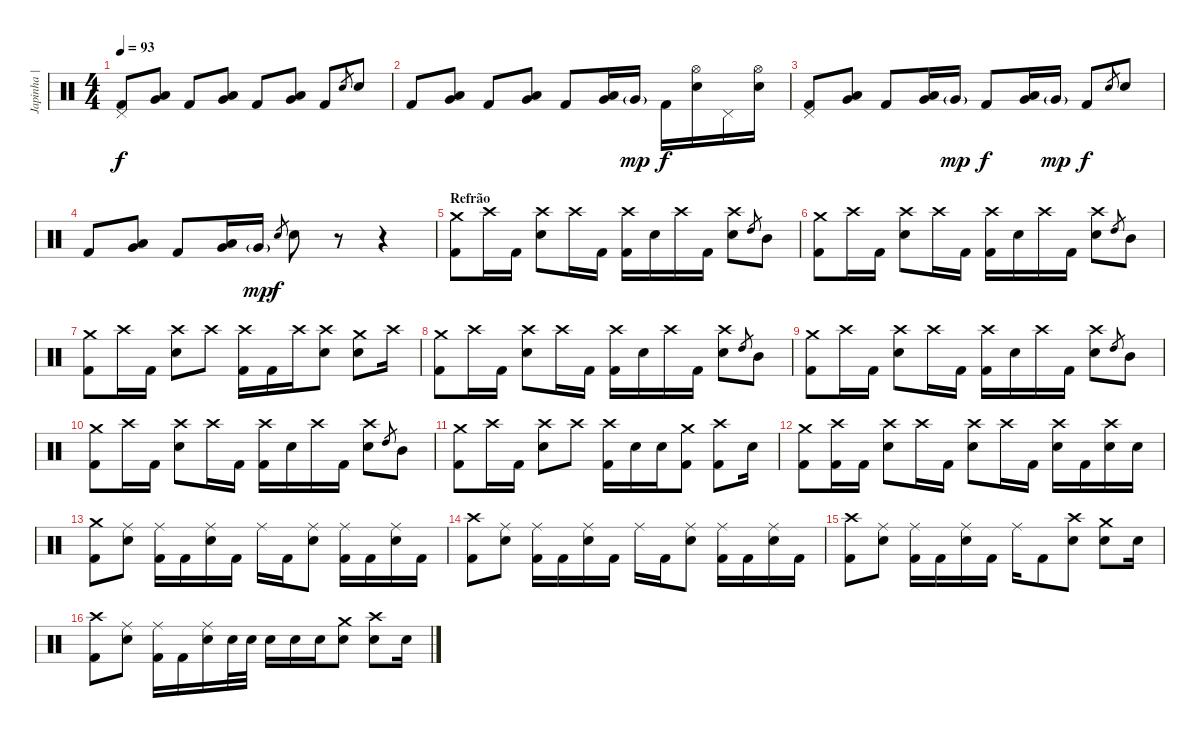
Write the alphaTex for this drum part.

\track ("Japinha | Bateria" "Japinha | ") {instrument percussion}
\staff {score}
\articulation defaults
\ts (4 4)
\tempo 93
\clef neutral
\ks c
("Pedal Hi-Hat (hit)" "Kick (hit) 2").8{dy f} ("Low Tom (hit)" "Very Low Tom (hit)").8 "Kick (hit) 2".8 ("Low Tom (hit)" "Very Low Tom (hit)").8 "Kick (hit) 2".8 ("Low Tom (hit)" "Very Low Tom (hit)").8 "Kick (hit) 2".8 "Electric Snare (hit)".8{gr} "Electric Snare (hit)".8 |
"Kick (hit) 2".8 ("Low Tom (hit)" "Very Low Tom (hit)").8 "Kick (hit) 2".8 ("Low Tom (hit)" "Very Low Tom (hit)").8 "Kick (hit) 2".8 ("Low Tom (hit)" "Very Low Tom (hit)").16 "Very Low Tom (hit)"{g}.16{dy mp} "Kick (hit) 2".16{dy f} ("Hi-Hat (open)" "Electric Snare (hit)").16 "Pedal Hi-Hat (hit)".16 ("Hi-Hat (open)" "Electric Snare (hit)").16 |
("Pedal Hi-Hat (hit)" "Kick (hit) 2").8 ("Low Tom (hit)" "Very Low Tom (hit)").8 "Kick (hit) 2".8 ("Low Tom (hit)" "Very Low Tom (hit)").16 "Very Low Tom (hit)"{g}.16{dy mp} "Kick (hit) 2".8{dy f} ("Low Tom (hit)" "Very Low Tom (hit)").16 "Very Low Tom (hit)"{g}.16{dy mp} "Kick (hit) 2".8{dy f} "Electric Snare (hit)".8{gr} "Electric Snare (hit)".8 |
"Kick (hit) 2".8 ("Low Tom (hit)" "Very Low Tom (hit)").8 "Kick (hit) 2".8 ("Low Tom (hit)" "Very Low Tom (hit)").16 "Very Low Tom (hit)"{g}.16{dy mp} "Electric Snare (hit)".8{gr dy f} "Electric Snare (hit)".8 r.8 r.4 |
\section ("" "Refrão")
("Crash medium (hit)" "Kick (hit) 2").8 "Crash high (hit)".16 "Kick (hit) 2".16 ("Crash high (hit)" "Electric Snare (hit)").8 "Crash high (hit)".16 "Kick (hit) 2".16 ("Crash high (hit)" "Kick (hit) 2").16 "Electric Snare (hit)".16 "Crash high (hit)".16 "Kick (hit) 2".16 ("Crash high (hit)" "Electric Snare (hit)").8 "High Tom (hit)".8{gr} "Mid Tom (hit)".8 |
("Crash medium (hit)" "Kick (hit) 2").8 "Crash high (hit)".16 "Kick (hit) 2".16 ("Crash high (hit)" "Electric Snare (hit)").8 "Crash high (hit)".16 "Kick (hit) 2".16 ("Crash high (hit)" "Kick (hit) 2").16 "Electric Snare (hit)".16 "Crash high (hit)".16 "Kick (hit) 2".16 ("Crash high (hit)" "Electric Snare (hit)").8 "High Tom (hit)".8{gr} "Mid Tom (hit)".8 |
("Crash medium (hit)" "Kick (hit) 2").8 "Crash high (hit)".16 "Kick (hit) 2".16 ("Crash high (hit)" "Electric Snare (hit)").8 "Crash high (hit)".8 ("Crash high (hit)" "Kick (hit) 2").16 "Kick (hit) 2".16 "Crash high (hit)".16 ("Crash high (hit)" "Electric Snare (hit)").8 ("Crash medium (hit)" "Electric Snare (hit)").8 "Crash high (hit)".16 |
("Crash medium (hit)" "Kick (hit) 2").8 "Crash high (hit)".16 "Kick (hit) 2".16 ("Crash high (hit)" "Electric Snare (hit)").8 "Crash high (hit)".16 "Kick (hit) 2".16 ("Crash high (hit)" "Kick (hit) 2").16 "Electric Snare (hit)".16 "Crash high (hit)".16 "Kick (hit) 2".16 ("Crash high (hit)" "Electric Snare (hit)").8 "High Tom (hit)".8{gr} "Mid Tom (hit)".8 |
("Crash medium (hit)" "Kick (hit) 2").8 "Crash high (hit)".16 "Kick (hit) 2".16 ("Crash high (hit)" "Electric Snare (hit)").8 "Crash high (hit)".16 "Kick (hit) 2".16 ("Crash high (hit)" "Kick (hit) 2").16 "Electric Snare (hit)".16 "Crash high (hit)".16 "Kick (hit) 2".16 ("Crash high (hit)" "Electric Snare (hit)").8 "High Tom (hit)".8{gr} "Mid Tom (hit)".8 |
("Crash medium (hit)" "Kick (hit) 2").8 "Crash high (hit)".16 "Kick (hit) 2".16 ("Crash high (hit)" "Electric Snare (hit)").8 "Crash high (hit)".16 "Kick (hit) 2".16 ("Crash high (hit)" "Kick (hit) 2").16 "Electric Snare (hit)".16 "Crash high (hit)".16 "Kick (hit) 2".16 ("Crash high (hit)" "Electric Snare (hit)").8 "High Tom (hit)".8{gr} "Mid Tom (hit)".8 |
("Crash medium (hit)" "Kick (hit) 2").8 "Crash high (hit)".16 "Kick (hit) 2".16 ("Crash high (hit)" "Electric Snare (hit)").8 "Crash high (hit)".8 ("Crash high (hit)" "Kick (hit) 2").16 "Electric Snare (hit)".16 "Electric Snare (hit)".16 ("Crash medium (hit)" "Kick (hit) 2").8 ("Crash high (hit)" "Kick (hit) 2").8 "Electric Snare (hit)".16 |
("Crash medium (hit)" "Kick (hit) 2").8 ("Crash high (hit)" "Kick (hit) 2").16 "Kick (hit) 2".16 ("Crash high (hit)" "Electric Snare (hit)").8 "Crash high (hit)".16 "Kick (hit) 2".16 ("Crash high (hit)" "Electric Snare (hit)").8 "Crash high (hit)".16 "Kick (hit) 2".16 ("Crash high (hit)" "Electric Snare (hit)").16 "Kick (hit) 2".16 ("Crash high (hit)" "Electric Snare (hit)").16 "Electric Snare (hit)".16 |
("Crash medium (hit)" "Kick (hit) 2").8 ("Ride (middle)" "Electric Snare (hit)").8 ("Ride (middle)" "Kick (hit) 2").16 "Kick (hit) 2".16 ("Ride (middle)" "Electric Snare (hit)").16 "Kick (hit) 2".16 "Ride (middle)".16 "Kick (hit) 2".16 ("Ride (middle)" "Electric Snare (hit)").8 ("Ride (middle)" "Kick (hit) 2").16 "Kick (hit) 2".16 ("Ride (middle)" "Electric Snare (hit)").16 "Kick (hit) 2".16 |
("Crash high (hit)" "Kick (hit) 2").8 ("Ride (middle)" "Electric Snare (hit)").8 ("Ride (middle)" "Kick (hit) 2").16 "Kick (hit) 2".16 ("Ride (middle)" "Electric Snare (hit)").16 "Kick (hit) 2".16 "Ride (middle)".16 "Kick (hit) 2".16 ("Ride (middle)" "Electric Snare (hit)").8 ("Ride (middle)" "Kick (hit) 2").16 "Kick (hit) 2".16 ("Ride (middle)" "Electric Snare (hit)").16 "Kick (hit) 2".16 |
("Crash high (hit)" "Kick (hit) 2").8 ("Ride (middle)" "Electric Snare (hit)").8 ("Ride (middle)" "Kick (hit) 2").16 "Kick (hit) 2".16 ("Ride (middle)" "Electric Snare (hit)").16 "Kick (hit) 2".16 "Ride (middle)".16 "Kick (hit) 2".8 ("Crash high (hit)" "Electric Snare (hit)").8 ("Crash medium (hit)" "Electric Snare (hit)").8 "Electric Snare (hit)".16 |
("Crash high (hit)" "Kick (hit) 2").8 ("Ride (middle)" "Electric Snare (hit)").8 ("Ride (middle)" "Kick (hit) 2").16 "Kick (hit) 2".16 ("Ride (middle)" "Electric Snare (hit)").16 "Electric Snare (hit)".32 "Electric Snare (hit)".32 "Electric Snare (hit)".16 "Electric Snare (hit)".16 "Electric Snare (hit)".16 ("Crash medium (hit)" "Electric Snare (hit)").8 ("Crash high (hit)" "Electric Snare (hit)").8 "Electric Snare (hit)".16
